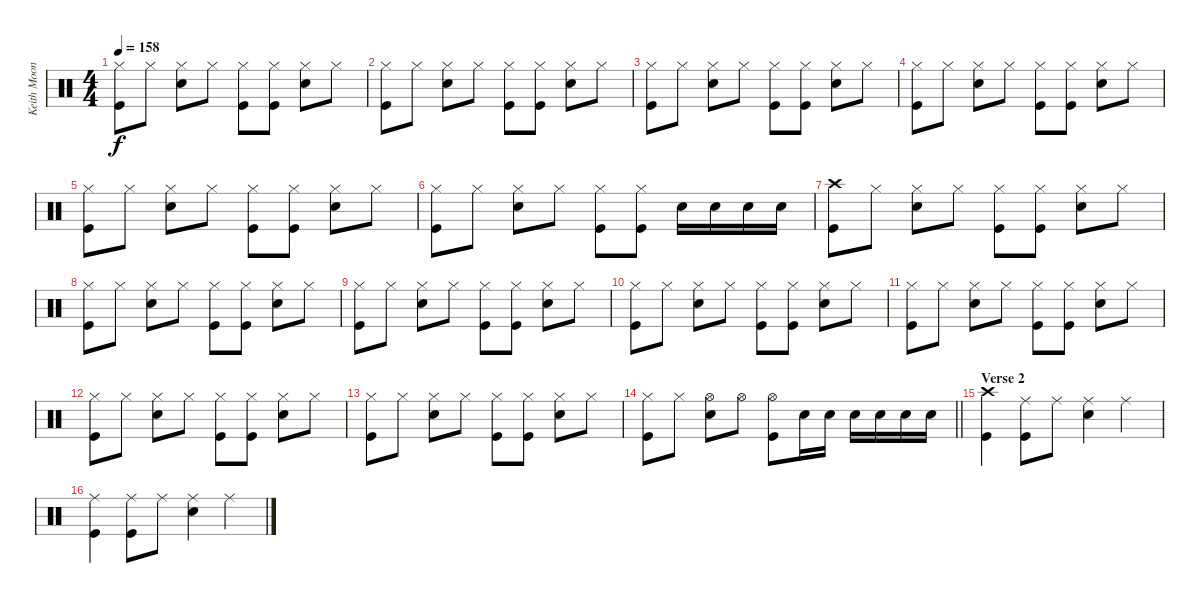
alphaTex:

\track ("Keith Moon" "Keith Moon") {instrument percussion}
\staff {score}
\articulation defaults
\ts (4 4)
\tempo 158
\clef neutral
\ks c
("Hi-Hat (closed)" "Kick (hit)").8{dy f} "Hi-Hat (closed)".8 ("Hi-Hat (closed)" "Snare (hit) 2").8 "Hi-Hat (closed)".8 ("Hi-Hat (closed)" "Kick (hit)").8 ("Hi-Hat (closed)" "Kick (hit)").8 ("Hi-Hat (closed)" "Snare (hit) 2").8 "Hi-Hat (closed)".8 |
("Hi-Hat (closed)" "Kick (hit)").8 "Hi-Hat (closed)".8 ("Hi-Hat (closed)" "Snare (hit) 2").8 "Hi-Hat (closed)".8 ("Hi-Hat (closed)" "Kick (hit)").8 ("Hi-Hat (closed)" "Kick (hit)").8 ("Hi-Hat (closed)" "Snare (hit) 2").8 "Hi-Hat (closed)".8 |
("Hi-Hat (closed)" "Kick (hit)").8 "Hi-Hat (closed)".8 ("Hi-Hat (closed)" "Snare (hit) 2").8 "Hi-Hat (closed)".8 ("Hi-Hat (closed)" "Kick (hit)").8 ("Hi-Hat (closed)" "Kick (hit)").8 ("Hi-Hat (closed)" "Snare (hit) 2").8 "Hi-Hat (closed)".8 |
("Hi-Hat (closed)" "Kick (hit)").8 "Hi-Hat (closed)".8 ("Hi-Hat (closed)" "Snare (hit) 2").8 "Hi-Hat (closed)".8 ("Hi-Hat (closed)" "Kick (hit)").8 ("Hi-Hat (closed)" "Kick (hit)").8 ("Hi-Hat (closed)" "Snare (hit) 2").8 "Hi-Hat (closed)".8 |
("Hi-Hat (closed)" "Kick (hit)").8 "Hi-Hat (closed)".8 ("Hi-Hat (closed)" "Snare (hit) 2").8 "Hi-Hat (closed)".8 ("Hi-Hat (closed)" "Kick (hit)").8 ("Hi-Hat (closed)" "Kick (hit)").8 ("Hi-Hat (closed)" "Snare (hit) 2").8 "Hi-Hat (closed)".8 |
("Hi-Hat (closed)" "Kick (hit)").8 "Hi-Hat (closed)".8 ("Hi-Hat (closed)" "Snare (hit) 2").8 "Hi-Hat (closed)".8 ("Hi-Hat (closed)" "Kick (hit)").8 ("Hi-Hat (closed)" "Kick (hit)").8 "Snare (hit) 2".16 "Snare (hit) 2".16 "Snare (hit) 2".16 "Snare (hit) 2".16 |
("Crash high (hit)" "Kick (hit)").8 "Hi-Hat (closed)".8 ("Hi-Hat (closed)" "Snare (hit) 2").8 "Hi-Hat (closed)".8 ("Hi-Hat (closed)" "Kick (hit)").8 ("Hi-Hat (closed)" "Kick (hit)").8 ("Hi-Hat (closed)" "Snare (hit) 2").8 "Hi-Hat (closed)".8 |
("Hi-Hat (closed)" "Kick (hit)").8 "Hi-Hat (closed)".8 ("Hi-Hat (closed)" "Snare (hit) 2").8 "Hi-Hat (closed)".8 ("Hi-Hat (closed)" "Kick (hit)").8 ("Hi-Hat (closed)" "Kick (hit)").8 ("Hi-Hat (closed)" "Snare (hit) 2").8 "Hi-Hat (closed)".8 |
("Hi-Hat (closed)" "Kick (hit)").8 "Hi-Hat (closed)".8 ("Hi-Hat (closed)" "Snare (hit) 2").8 "Hi-Hat (closed)".8 ("Hi-Hat (closed)" "Kick (hit)").8 ("Hi-Hat (closed)" "Kick (hit)").8 ("Hi-Hat (closed)" "Snare (hit) 2").8 "Hi-Hat (closed)".8 |
("Hi-Hat (closed)" "Kick (hit)").8 "Hi-Hat (closed)".8 ("Hi-Hat (closed)" "Snare (hit) 2").8 "Hi-Hat (closed)".8 ("Hi-Hat (closed)" "Kick (hit)").8 ("Hi-Hat (closed)" "Kick (hit)").8 ("Hi-Hat (closed)" "Snare (hit) 2").8 "Hi-Hat (closed)".8 |
("Hi-Hat (closed)" "Kick (hit)").8 "Hi-Hat (closed)".8 ("Hi-Hat (closed)" "Snare (hit) 2").8 "Hi-Hat (closed)".8 ("Hi-Hat (closed)" "Kick (hit)").8 ("Hi-Hat (closed)" "Kick (hit)").8 ("Hi-Hat (closed)" "Snare (hit) 2").8 "Hi-Hat (closed)".8 |
("Hi-Hat (closed)" "Kick (hit)").8 "Hi-Hat (closed)".8 ("Hi-Hat (closed)" "Snare (hit) 2").8 "Hi-Hat (closed)".8 ("Hi-Hat (closed)" "Kick (hit)").8 ("Hi-Hat (closed)" "Kick (hit)").8 ("Hi-Hat (closed)" "Snare (hit) 2").8 "Hi-Hat (closed)".8 |
("Hi-Hat (closed)" "Kick (hit)").8 "Hi-Hat (closed)".8 ("Hi-Hat (closed)" "Snare (hit) 2").8 "Hi-Hat (closed)".8 ("Hi-Hat (closed)" "Kick (hit)").8 ("Hi-Hat (closed)" "Kick (hit)").8 ("Hi-Hat (closed)" "Snare (hit) 2").8 "Hi-Hat (closed)".8 |
\barLineRight lightlight
("Hi-Hat (closed)" "Kick (hit)").8 "Hi-Hat (closed)".8 ("Hi-Hat (open)" "Snare (hit) 2").8 "Hi-Hat (open)".8 ("Hi-Hat (open)" "Kick (hit)").8 "Snare (hit) 2".16 "Snare (hit) 2".16 "Snare (hit) 2".16 "Snare (hit) 2".16 "Snare (hit) 2".16 "Snare (hit) 2".16 |
\section ("" "Verse 2")
("Crash high (hit)" "Kick (hit)").4 ("Ride (middle)" "Kick (hit)").8 "Ride (middle)".8 ("Ride (middle)" "Snare (hit) 2").4 "Ride (middle)".4 |
("Ride (middle)" "Kick (hit)").4 ("Ride (middle)" "Kick (hit)").8 "Ride (middle)".8 ("Ride (middle)" "Snare (hit) 2").4 "Ride (middle)".4
